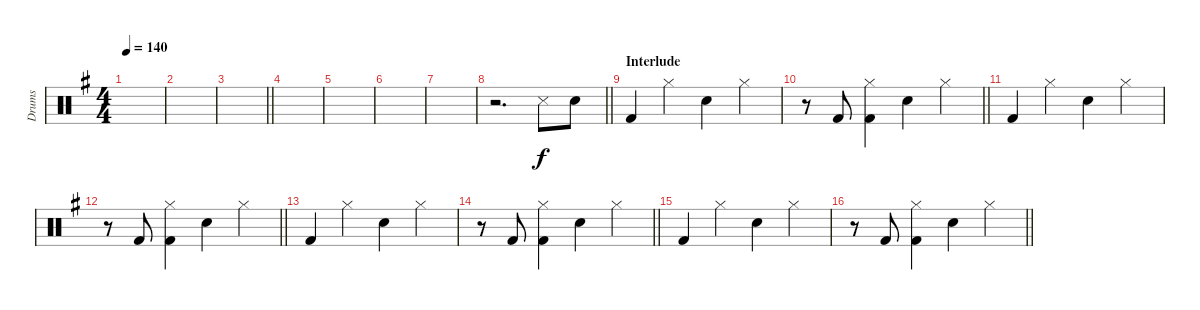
\track ("Drums" "Drums") {instrument percussion}
\staff {score}
\articulation defaults
\ts (4 4)
\tempo 140
\clef neutral
\ks g
|
|
\barLineRight lightlight
|
|
|
|
|
\barLineRight lightlight
r.2{d} "Snare (side stick) 3".8 "Snare (hit) 2".8 |
\section ("" "Interlude")
"Kick (hit) 2".4 "Hi-Hat (closed)".4 "Snare (hit) 2".4 "Hi-Hat (closed)".4 |
\barLineRight lightlight
r.8 "Kick (hit) 2".8 ("Hi-Hat (closed)" "Kick (hit) 2").4 "Snare (hit) 2".4 "Hi-Hat (closed)".4 |
"Kick (hit) 2".4 "Hi-Hat (closed)".4 "Snare (hit) 2".4 "Hi-Hat (closed)".4 |
\barLineRight lightlight
r.8 "Kick (hit) 2".8 ("Hi-Hat (closed)" "Kick (hit) 2").4 "Snare (hit) 2".4 "Hi-Hat (closed)".4 |
"Kick (hit) 2".4 "Hi-Hat (closed)".4 "Snare (hit) 2".4 "Hi-Hat (closed)".4 |
\barLineRight lightlight
r.8 "Kick (hit) 2".8 ("Hi-Hat (closed)" "Kick (hit) 2").4 "Snare (hit) 2".4 "Hi-Hat (closed)".4 |
"Kick (hit) 2".4 "Hi-Hat (closed)".4 "Snare (hit) 2".4 "Hi-Hat (closed)".4 |
\barLineRight lightlight
r.8 "Kick (hit) 2".8 ("Hi-Hat (closed)" "Kick (hit) 2").4 "Snare (hit) 2".4 "Hi-Hat (closed)".4
